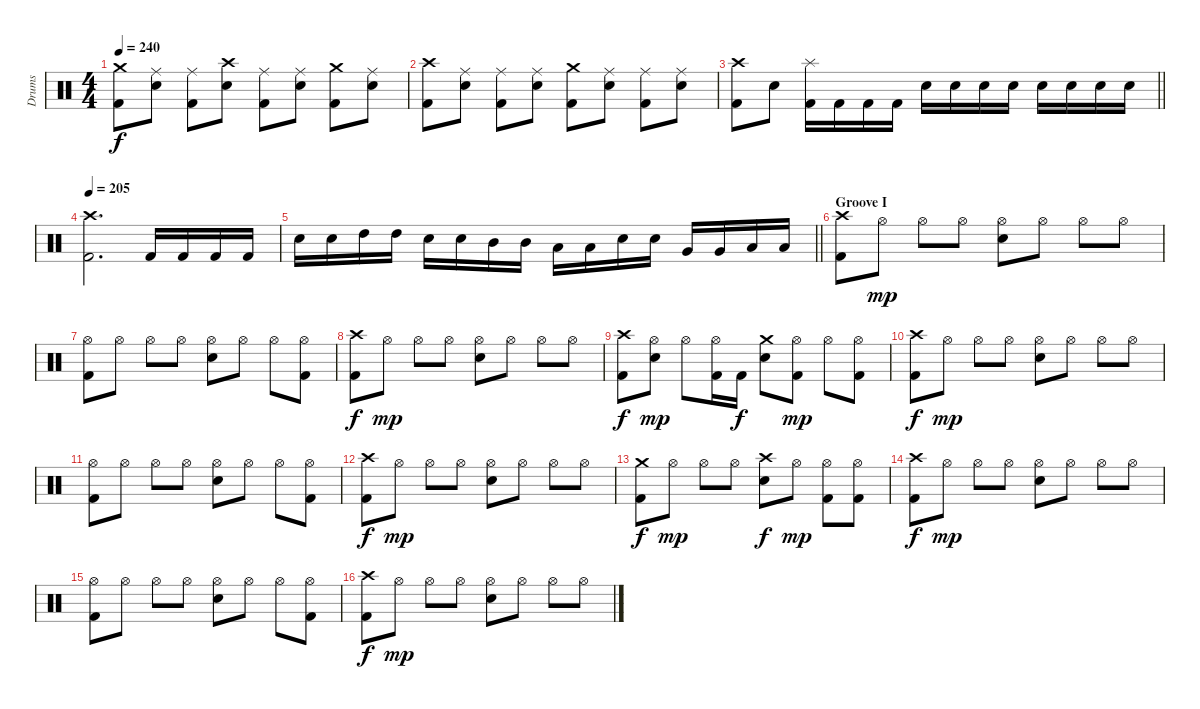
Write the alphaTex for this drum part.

\track ("Drums" "Drums") {instrument percussion}
\staff {score}
\articulation defaults
\ts (4 4)
\tempo 240
\clef neutral
\ks c
("Crash medium (hit)" "Kick (hit) 2").8{dy f} ("Ride (middle)" "Snare (hit) 2").8 ("Ride (middle)" "Kick (hit) 2").8 ("Crash high (hit)" "Snare (hit) 2").8 ("Ride (middle)" "Kick (hit) 2").8 ("Ride (middle)" "Snare (hit) 2").8 ("Crash medium (hit)" "Kick (hit) 2").8 ("Ride (middle)" "Snare (hit) 2").8 |
("Crash high (hit)" "Kick (hit) 2").8 ("Ride (middle)" "Snare (hit) 2").8 ("Ride (middle)" "Kick (hit) 2").8 ("Ride (middle)" "Snare (hit) 2").8 ("Crash medium (hit)" "Kick (hit) 2").8 ("Ride (middle)" "Snare (hit) 2").8 ("Ride (middle)" "Kick (hit) 2").8 ("Ride (middle)" "Snare (hit) 2").8 |
\barLineRight lightlight
("Crash high (hit)" "Kick (hit) 2").8 "Snare (hit) 2".8 ("Splash (hit)" "Kick (hit) 2").16 "Kick (hit) 2".16 "Kick (hit) 2".16 "Kick (hit) 2".16 "Snare (hit) 2".16 "Snare (hit) 2".16 "Snare (hit) 2".16 "Snare (hit) 2".16 "Snare (hit) 2".16 "Snare (hit) 2".16 "Snare (hit) 2".16 "Snare (hit) 2".16 |
\tempo 205
("Crash high (hit)" "Kick (hit) 2").2{d} "Kick (hit) 2".16 "Kick (hit) 2".16 "Kick (hit) 2".16 "Kick (hit) 2".16 |
\barLineRight lightlight "Snare (hit) 2".16 "Snare (hit) 2".16 "High Tom (hit)".16 "High Tom (hit)".16 "Snare (hit) 2".16 "Snare (hit) 2".16 "Mid Tom (hit)".16 "Mid Tom (hit)".16 "Low Tom (hit)".16 "Low Tom (hit)".16 "Snare (hit) 2".16 "Snare (hit) 2".16 "Very Low Tom (hit)".16 "Very Low Tom (hit)".16 "Low Floor Tom (hit)".16 "Low Floor Tom (hit)".16
|
\section ("" "Groove I")
("Crash high (hit)" "Kick (hit) 2").8 "Hi-Hat (open)".8{dy mp} "Hi-Hat (open)".8 "Hi-Hat (open)".8 ("Hi-Hat (open)" "Snare (hit) 2").8 "Hi-Hat (open)".8 "Hi-Hat (open)".8 "Hi-Hat (open)".8 |
("Hi-Hat (open)" "Kick (hit) 2").8 "Hi-Hat (open)".8 "Hi-Hat (open)".8 "Hi-Hat (open)".8 ("Hi-Hat (open)" "Snare (hit) 2").8 "Hi-Hat (open)".8 "Hi-Hat (open)".8 ("Hi-Hat (open)" "Kick (hit) 2").8 |
("Crash high (hit)" "Kick (hit) 2").8{dy f} "Hi-Hat (open)".8{dy mp} "Hi-Hat (open)".8 "Hi-Hat (open)".8 ("Hi-Hat (open)" "Snare (hit) 2").8 "Hi-Hat (open)".8 "Hi-Hat (open)".8 "Hi-Hat (open)".8 |
("Crash high (hit)" "Kick (hit) 2").8{dy f} ("Hi-Hat (open)" "Snare (hit) 2").8{dy mp} "Hi-Hat (open)".8 ("Hi-Hat (open)" "Kick (hit) 2").16 "Kick (hit) 2".16{dy f} ("Crash medium (hit)" "Snare (hit) 2").8 ("Hi-Hat (open)" "Kick (hit) 2").8{dy mp} "Hi-Hat (open)".8 ("Hi-Hat (open)" "Kick (hit) 2").8 |
("Crash high (hit)" "Kick (hit) 2").8{dy f} "Hi-Hat (open)".8{dy mp} "Hi-Hat (open)".8 "Hi-Hat (open)".8 ("Hi-Hat (open)" "Snare (hit) 2").8 "Hi-Hat (open)".8 "Hi-Hat (open)".8 "Hi-Hat (open)".8 |
("Hi-Hat (open)" "Kick (hit) 2").8 "Hi-Hat (open)".8 "Hi-Hat (open)".8 "Hi-Hat (open)".8 ("Hi-Hat (open)" "Snare (hit) 2").8 "Hi-Hat (open)".8 "Hi-Hat (open)".8 ("Hi-Hat (open)" "Kick (hit) 2").8 |
("Crash high (hit)" "Kick (hit) 2").8{dy f} "Hi-Hat (open)".8{dy mp} "Hi-Hat (open)".8 "Hi-Hat (open)".8 ("Hi-Hat (open)" "Snare (hit) 2").8 "Hi-Hat (open)".8 "Hi-Hat (open)".8 "Hi-Hat (open)".8 |
("Crash medium (hit)" "Kick (hit) 2").8{dy f} "Hi-Hat (open)".8{dy mp} "Hi-Hat (open)".8 "Hi-Hat (open)".8 ("Crash high (hit)" "Snare (hit) 2").8{dy f} "Hi-Hat (open)".8{dy mp} ("Hi-Hat (open)" "Kick (hit) 2").8 ("Hi-Hat (open)" "Kick (hit) 2").8 |
("Crash high (hit)" "Kick (hit) 2").8{dy f} "Hi-Hat (open)".8{dy mp} "Hi-Hat (open)".8 "Hi-Hat (open)".8 ("Hi-Hat (open)" "Snare (hit) 2").8 "Hi-Hat (open)".8 "Hi-Hat (open)".8 "Hi-Hat (open)".8 |
("Hi-Hat (open)" "Kick (hit) 2").8 "Hi-Hat (open)".8 "Hi-Hat (open)".8 "Hi-Hat (open)".8 ("Hi-Hat (open)" "Snare (hit) 2").8 "Hi-Hat (open)".8 "Hi-Hat (open)".8 ("Hi-Hat (open)" "Kick (hit) 2").8 |
("Crash high (hit)" "Kick (hit) 2").8{dy f} "Hi-Hat (open)".8{dy mp} "Hi-Hat (open)".8 "Hi-Hat (open)".8 ("Hi-Hat (open)" "Snare (hit) 2").8 "Hi-Hat (open)".8 "Hi-Hat (open)".8 "Hi-Hat (open)".8
